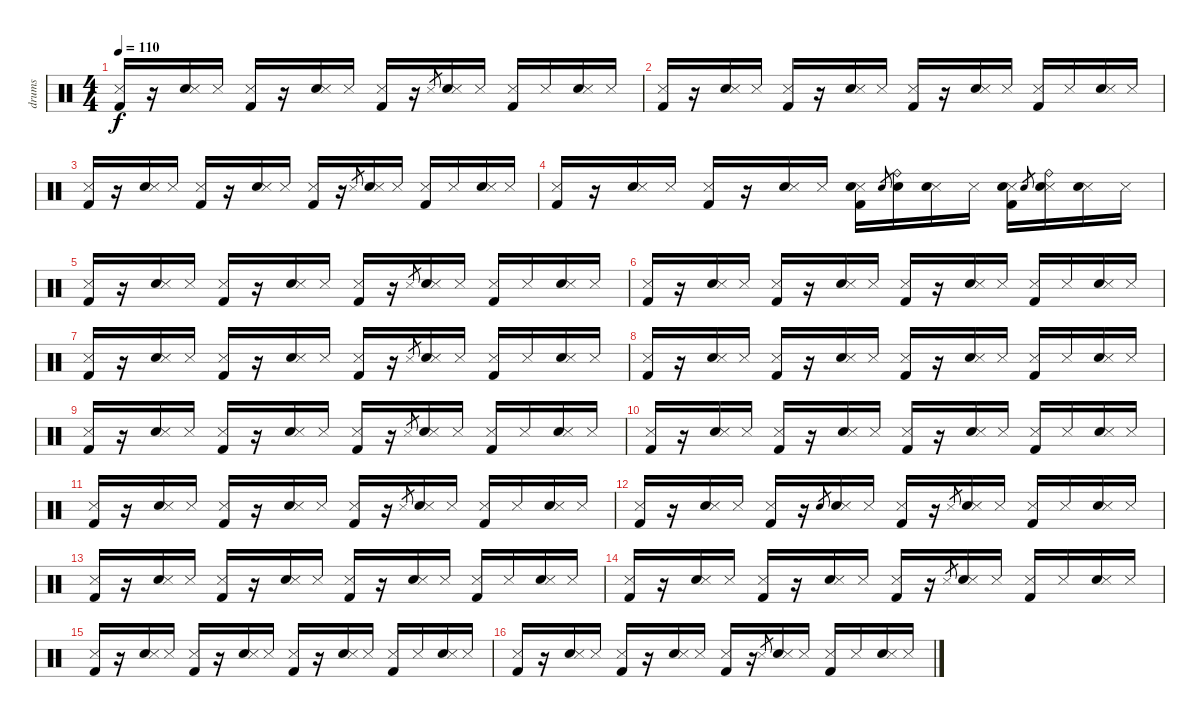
\track ("drums" "drums") {instrument percussion}
\staff {score}
\articulation defaults
\ts (4 4)
\tempo 110
\clef neutral
\ks c
("Kick (hit) 2" "Snare (side stick) 3").16{dy f} r.16 ("Electric Snare (hit)" "Snare (side stick) 3").16 "Snare (side stick) 3".16 ("Kick (hit) 2" "Snare (side stick) 3").16 r.16 ("Electric Snare (hit)" "Snare (side stick) 3").16 "Snare (side stick) 3".16 ("Kick (hit) 2" "Snare (side stick) 3").16 r.16 "Snare (side stick) 3".8{gr} ("Electric Snare (hit)" "Snare (side stick) 3").16 "Snare (side stick) 3".16 ("Kick (hit) 2" "Snare (side stick) 3").16 "Snare (side stick) 3".16 ("Electric Snare (hit)" "Snare (side stick) 3").16 "Snare (side stick) 3".16 |
("Kick (hit) 2" "Snare (side stick) 3").16 r.16 ("Electric Snare (hit)" "Snare (side stick) 3").16 "Snare (side stick) 3".16 ("Kick (hit) 2" "Snare (side stick) 3").16 r.16 ("Electric Snare (hit)" "Snare (side stick) 3").16 "Snare (side stick) 3".16 ("Kick (hit) 2" "Snare (side stick) 3").16 r.16 ("Electric Snare (hit)" "Snare (side stick) 3").16 "Snare (side stick) 3".16 ("Kick (hit) 2" "Snare (side stick) 3").16 "Snare (side stick) 3".16 ("Electric Snare (hit)" "Snare (side stick) 3").16 "Snare (side stick) 3".16 |
("Kick (hit) 2" "Snare (side stick) 3").16 r.16 ("Electric Snare (hit)" "Snare (side stick) 3").16 "Snare (side stick) 3".16 ("Kick (hit) 2" "Snare (side stick) 3").16 r.16 ("Electric Snare (hit)" "Snare (side stick) 3").16 "Snare (side stick) 3".16 ("Kick (hit) 2" "Snare (side stick) 3").16 r.16 "Snare (side stick) 3".8{gr} ("Electric Snare (hit)" "Snare (side stick) 3").16 "Snare (side stick) 3".16 ("Kick (hit) 2" "Snare (side stick) 3").16 "Snare (side stick) 3".16 ("Electric Snare (hit)" "Snare (side stick) 3").16 "Snare (side stick) 3".16 |
("Kick (hit) 2" "Snare (side stick) 3").16 r.16 ("Electric Snare (hit)" "Snare (side stick) 3").16 "Snare (side stick) 3".16 ("Kick (hit) 2" "Snare (side stick) 3").16 r.16 ("Electric Snare (hit)" "Snare (side stick) 3").16 "Snare (side stick) 3".16 ("Kick (hit) 2" "Snare (side stick) 3" "Snare (hit) 2").16 "Snare (hit) 2".8{gr} ("Snare (hit) 2" "Ride (bell)").16 ("Snare (side stick) 3" "Snare (hit) 2").16 "Snare (side stick) 3".16 ("Kick (hit) 2" "Snare (side stick) 3" "Snare (hit) 2").16 "Snare (hit) 2".8{gr} ("Snare (side stick) 3" "Snare (hit) 2" "Ride (bell)").16 ("Snare (side stick) 3" "Snare (hit) 2").16 "Snare (side stick) 3".16 |
("Kick (hit) 2" "Snare (side stick) 3").16 r.16 ("Electric Snare (hit)" "Snare (side stick) 3").16 "Snare (side stick) 3".16 ("Kick (hit) 2" "Snare (side stick) 3").16 r.16 ("Electric Snare (hit)" "Snare (side stick) 3").16 "Snare (side stick) 3".16 ("Kick (hit) 2" "Snare (side stick) 3").16 r.16 "Snare (side stick) 3".8{gr} ("Electric Snare (hit)" "Snare (side stick) 3").16 "Snare (side stick) 3".16 ("Kick (hit) 2" "Snare (side stick) 3").16 "Snare (side stick) 3".16 ("Electric Snare (hit)" "Snare (side stick) 3").16 "Snare (side stick) 3".16 |
("Kick (hit) 2" "Snare (side stick) 3").16 r.16 ("Electric Snare (hit)" "Snare (side stick) 3").16 "Snare (side stick) 3".16 ("Kick (hit) 2" "Snare (side stick) 3").16 r.16 ("Electric Snare (hit)" "Snare (side stick) 3").16 "Snare (side stick) 3".16 ("Kick (hit) 2" "Snare (side stick) 3").16 r.16 ("Electric Snare (hit)" "Snare (side stick) 3").16 "Snare (side stick) 3".16 ("Kick (hit) 2" "Snare (side stick) 3").16 "Snare (side stick) 3".16 ("Electric Snare (hit)" "Snare (side stick) 3").16 "Snare (side stick) 3".16 |
("Kick (hit) 2" "Snare (side stick) 3").16 r.16 ("Electric Snare (hit)" "Snare (side stick) 3").16 "Snare (side stick) 3".16 ("Kick (hit) 2" "Snare (side stick) 3").16 r.16 ("Electric Snare (hit)" "Snare (side stick) 3").16 "Snare (side stick) 3".16 ("Kick (hit) 2" "Snare (side stick) 3").16 r.16 "Snare (side stick) 3".8{gr} ("Electric Snare (hit)" "Snare (side stick) 3").16 "Snare (side stick) 3".16 ("Kick (hit) 2" "Snare (side stick) 3").16 "Snare (side stick) 3".16 ("Electric Snare (hit)" "Snare (side stick) 3").16 "Snare (side stick) 3".16 |
("Kick (hit) 2" "Snare (side stick) 3").16 r.16 ("Electric Snare (hit)" "Snare (side stick) 3").16 "Snare (side stick) 3".16 ("Kick (hit) 2" "Snare (side stick) 3").16 r.16 ("Electric Snare (hit)" "Snare (side stick) 3").16 "Snare (side stick) 3".16 ("Kick (hit) 2" "Snare (side stick) 3").16 r.16 ("Electric Snare (hit)" "Snare (side stick) 3").16 "Snare (side stick) 3".16 ("Kick (hit) 2" "Snare (side stick) 3").16 "Snare (side stick) 3".16 ("Electric Snare (hit)" "Snare (side stick) 3").16 "Snare (side stick) 3".16 |
("Kick (hit) 2" "Snare (side stick) 3").16 r.16 ("Electric Snare (hit)" "Snare (side stick) 3").16 "Snare (side stick) 3".16 ("Kick (hit) 2" "Snare (side stick) 3").16 r.16 ("Electric Snare (hit)" "Snare (side stick) 3").16 "Snare (side stick) 3".16 ("Kick (hit) 2" "Snare (side stick) 3").16 r.16 "Snare (side stick) 3".8{gr} ("Electric Snare (hit)" "Snare (side stick) 3").16 "Snare (side stick) 3".16 ("Kick (hit) 2" "Snare (side stick) 3").16 "Snare (side stick) 3".16 ("Electric Snare (hit)" "Snare (side stick) 3").16 "Snare (side stick) 3".16 |
("Kick (hit) 2" "Snare (side stick) 3").16 r.16 ("Electric Snare (hit)" "Snare (side stick) 3").16 "Snare (side stick) 3".16 ("Kick (hit) 2" "Snare (side stick) 3").16 r.16 ("Electric Snare (hit)" "Snare (side stick) 3").16 "Snare (side stick) 3".16 ("Kick (hit) 2" "Snare (side stick) 3").16 r.16 ("Electric Snare (hit)" "Snare (side stick) 3").16 "Snare (side stick) 3".16 ("Kick (hit) 2" "Snare (side stick) 3").16 "Snare (side stick) 3".16 ("Electric Snare (hit)" "Snare (side stick) 3").16 "Snare (side stick) 3".16 |
("Kick (hit) 2" "Snare (side stick) 3").16 r.16 ("Electric Snare (hit)" "Snare (side stick) 3").16 "Snare (side stick) 3".16 ("Kick (hit) 2" "Snare (side stick) 3").16 r.16 ("Electric Snare (hit)" "Snare (side stick) 3").16 "Snare (side stick) 3".16 ("Kick (hit) 2" "Snare (side stick) 3").16 r.16 "Snare (side stick) 3".8{gr} ("Electric Snare (hit)" "Snare (side stick) 3").16 "Snare (side stick) 3".16 ("Kick (hit) 2" "Snare (side stick) 3").16 "Snare (side stick) 3".16 ("Electric Snare (hit)" "Snare (side stick) 3").16 "Snare (side stick) 3".16 |
("Kick (hit) 2" "Snare (side stick) 3").16 r.16 ("Electric Snare (hit)" "Snare (side stick) 3").16 "Snare (side stick) 3".16 ("Kick (hit) 2" "Snare (side stick) 3").16 r.16 "Electric Snare (hit)".8{gr} ("Electric Snare (hit)" "Snare (side stick) 3").16 "Snare (side stick) 3".16 ("Kick (hit) 2" "Snare (side stick) 3").16 r.16 "Snare (side stick) 3".8{gr} ("Electric Snare (hit)" "Snare (side stick) 3").16 "Snare (side stick) 3".16 ("Kick (hit) 2" "Snare (side stick) 3").16 "Snare (side stick) 3".16 ("Electric Snare (hit)" "Snare (side stick) 3").16 "Snare (side stick) 3".16 |
("Kick (hit) 2" "Snare (side stick) 3").16 r.16 ("Electric Snare (hit)" "Snare (side stick) 3").16 "Snare (side stick) 3".16 ("Kick (hit) 2" "Snare (side stick) 3").16 r.16 ("Electric Snare (hit)" "Snare (side stick) 3").16 "Snare (side stick) 3".16 ("Kick (hit) 2" "Snare (side stick) 3").16 r.16 ("Electric Snare (hit)" "Snare (side stick) 3").16 "Snare (side stick) 3".16 ("Kick (hit) 2" "Snare (side stick) 3").16 "Snare (side stick) 3".16 ("Electric Snare (hit)" "Snare (side stick) 3").16 "Snare (side stick) 3".16 |
("Kick (hit) 2" "Snare (side stick) 3").16 r.16 ("Electric Snare (hit)" "Snare (side stick) 3").16 "Snare (side stick) 3".16 ("Kick (hit) 2" "Snare (side stick) 3").16 r.16 ("Electric Snare (hit)" "Snare (side stick) 3").16 "Snare (side stick) 3".16 ("Kick (hit) 2" "Snare (side stick) 3").16 r.16 "Snare (side stick) 3".8{gr} ("Electric Snare (hit)" "Snare (side stick) 3").16 "Snare (side stick) 3".16 ("Kick (hit) 2" "Snare (side stick) 3").16 "Snare (side stick) 3".16 ("Electric Snare (hit)" "Snare (side stick) 3").16 "Snare (side stick) 3".16 |
("Kick (hit) 2" "Snare (side stick) 3").16 r.16 ("Electric Snare (hit)" "Snare (side stick) 3").16 "Snare (side stick) 3".16 ("Kick (hit) 2" "Snare (side stick) 3").16 r.16 ("Electric Snare (hit)" "Snare (side stick) 3").16 "Snare (side stick) 3".16 ("Kick (hit) 2" "Snare (side stick) 3").16 r.16 ("Electric Snare (hit)" "Snare (side stick) 3").16 "Snare (side stick) 3".16 ("Kick (hit) 2" "Snare (side stick) 3").16 "Snare (side stick) 3".16 ("Electric Snare (hit)" "Snare (side stick) 3").16 "Snare (side stick) 3".16 |
("Kick (hit) 2" "Snare (side stick) 3").16 r.16 ("Electric Snare (hit)" "Snare (side stick) 3").16 "Snare (side stick) 3".16 ("Kick (hit) 2" "Snare (side stick) 3").16 r.16 ("Electric Snare (hit)" "Snare (side stick) 3").16 "Snare (side stick) 3".16 ("Kick (hit) 2" "Snare (side stick) 3").16 r.16 "Snare (side stick) 3".8{gr} ("Electric Snare (hit)" "Snare (side stick) 3").16 "Snare (side stick) 3".16 ("Kick (hit) 2" "Snare (side stick) 3").16 "Snare (side stick) 3".16 ("Electric Snare (hit)" "Snare (side stick) 3").16 "Snare (side stick) 3".16
